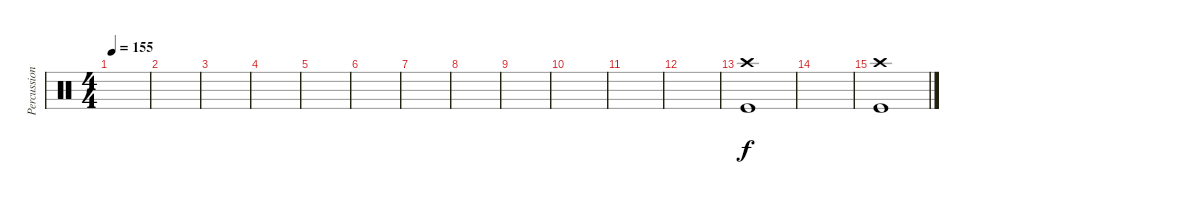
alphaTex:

\track ("Percussion" "Percussion") {instrument percussion}
\staff {score}
\articulation defaults
\ts (4 4)
\tempo 155
\clef neutral
\ks c
|
|
|
|
|
|
|
|
|
|
|
|
("Crash high (hit)" "Kick (hit)").1{dy f} |
|
("Crash high (hit)" "Kick (hit)").1
